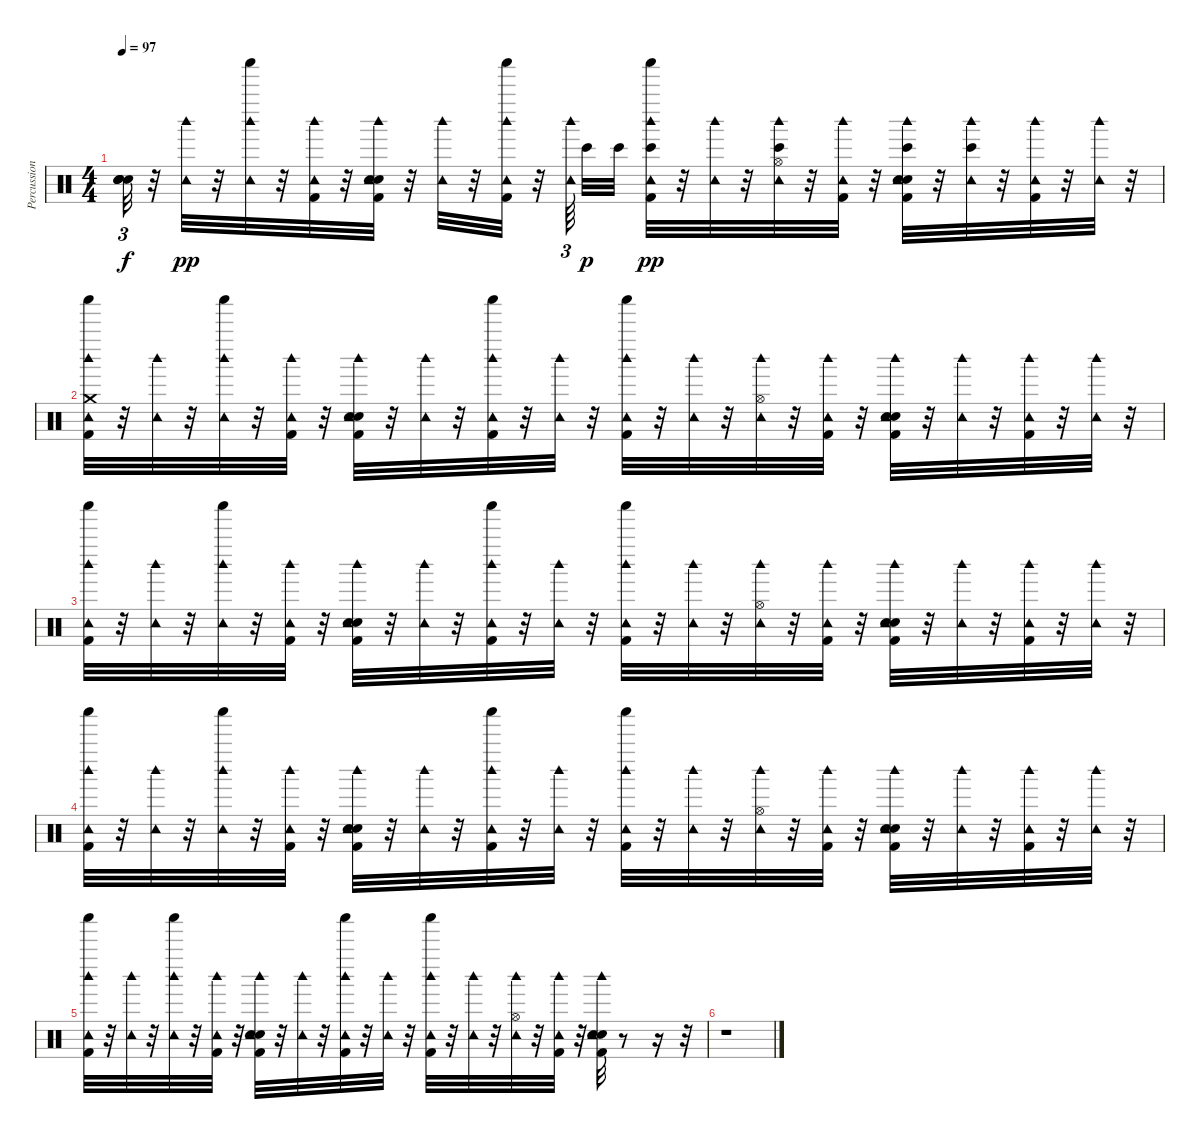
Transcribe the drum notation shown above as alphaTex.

\track ("Percussion" "Percussion") {instrument percussion}
\staff {score}
\articulation defaults
\ts (4 4)
\tempo 97
\clef neutral
\ks c
("Snare (hit)"{t} "Snare (hit)"{t} "Snare (hit)"{t} "Snare (hit)"{t}).32{tu (3 2) dy f} r.32 ("Tambourine (hit)" "Woodblock high (hit)").32{dy pp} r.32 ("Tambourine (hit)" "Shaker (hit)" "Woodblock high (hit)").32 r.32 ("Kick (hit) 2" "Tambourine (hit)" "Woodblock high (hit)").32 r.32 ("Kick (hit) 2" "Snare (hit) 2" "Hand Clap (hit)" "Tambourine (hit)" "Woodblock high (hit)").32 r.32 ("Tambourine (hit)" "Woodblock high (hit)").32 r.32 ("Kick (hit) 2" "Tambourine (hit)" "Shaker (hit)" "Woodblock high (hit)").32 r.32 ("Tambourine (hit)" "Woodblock high (hit)").64{tu (3 2) beam splitsecondary} "Bongo High (hit)".32{dy p} "Bongo High (hit)".32 ("Kick (hit) 2" "Tambourine (hit)" "Bongo High (hit)" "Shaker (hit)" "Woodblock high (hit)").32{dy pp} r.32 ("Tambourine (hit)" "Woodblock high (hit)").32 r.32 ("Hi-Hat (open)" "Tambourine (hit)" "Bongo High (hit)" "Woodblock high (hit)").32 r.32 ("Kick (hit) 2" "Tambourine (hit)" "Woodblock high (hit)").32 r.32 ("Kick (hit) 2" "Snare (hit) 2" "Hand Clap (hit)" "Tambourine (hit)" "Bongo High (hit)" "Woodblock high (hit)").32 r.32 ("Tambourine (hit)" "Bongo High (hit)" "Woodblock high (hit)").32 r.32 ("Kick (hit) 2" "Tambourine (hit)" "Woodblock high (hit)").32 r.32 ("Tambourine (hit)" "Woodblock high (hit)").32 r.32 |
("Kick (hit) 2" "Tambourine (hit)" "Crash medium (hit)" "Shaker (hit)" "Woodblock high (hit)").32 r.32 ("Tambourine (hit)" "Woodblock high (hit)").32 r.32 ("Tambourine (hit)" "Shaker (hit)" "Woodblock high (hit)").32 r.32 ("Kick (hit) 2" "Tambourine (hit)" "Woodblock high (hit)").32 r.32 ("Kick (hit) 2" "Snare (hit) 2" "Hand Clap (hit)" "Tambourine (hit)" "Woodblock high (hit)").32 r.32 ("Tambourine (hit)" "Woodblock high (hit)").32 r.32 ("Kick (hit) 2" "Tambourine (hit)" "Shaker (hit)" "Woodblock high (hit)").32 r.32 ("Tambourine (hit)" "Woodblock high (hit)").32 r.32 ("Kick (hit) 2" "Tambourine (hit)" "Shaker (hit)" "Woodblock high (hit)").32 r.32 ("Tambourine (hit)" "Woodblock high (hit)").32 r.32 ("Hi-Hat (open)" "Tambourine (hit)" "Woodblock high (hit)").32 r.32 ("Kick (hit) 2" "Tambourine (hit)" "Woodblock high (hit)").32 r.32 ("Kick (hit) 2" "Snare (hit) 2" "Hand Clap (hit)" "Tambourine (hit)" "Woodblock high (hit)").32 r.32 ("Tambourine (hit)" "Woodblock high (hit)").32 r.32 ("Kick (hit) 2" "Tambourine (hit)" "Woodblock high (hit)").32 r.32 ("Tambourine (hit)" "Woodblock high (hit)").32 r.32 |
("Kick (hit) 2" "Tambourine (hit)" "Shaker (hit)" "Woodblock high (hit)").32 r.32 ("Tambourine (hit)" "Woodblock high (hit)").32 r.32 ("Tambourine (hit)" "Shaker (hit)" "Woodblock high (hit)").32 r.32 ("Kick (hit) 2" "Tambourine (hit)" "Woodblock high (hit)").32 r.32 ("Kick (hit) 2" "Snare (hit) 2" "Hand Clap (hit)" "Tambourine (hit)" "Woodblock high (hit)").32 r.32 ("Tambourine (hit)" "Woodblock high (hit)").32 r.32 ("Kick (hit) 2" "Tambourine (hit)" "Shaker (hit)" "Woodblock high (hit)").32 r.32 ("Tambourine (hit)" "Woodblock high (hit)").32 r.32 ("Kick (hit) 2" "Tambourine (hit)" "Shaker (hit)" "Woodblock high (hit)").32 r.32 ("Tambourine (hit)" "Woodblock high (hit)").32 r.32 ("Hi-Hat (open)" "Tambourine (hit)" "Woodblock high (hit)").32 r.32 ("Kick (hit) 2" "Tambourine (hit)" "Woodblock high (hit)").32 r.32 ("Kick (hit) 2" "Snare (hit) 2" "Hand Clap (hit)" "Tambourine (hit)" "Woodblock high (hit)").32 r.32 ("Tambourine (hit)" "Woodblock high (hit)").32 r.32 ("Kick (hit) 2" "Tambourine (hit)" "Woodblock high (hit)").32 r.32 ("Tambourine (hit)" "Woodblock high (hit)").32 r.32 |
("Kick (hit) 2" "Tambourine (hit)" "Shaker (hit)" "Woodblock high (hit)").32 r.32 ("Tambourine (hit)" "Woodblock high (hit)").32 r.32 ("Tambourine (hit)" "Shaker (hit)" "Woodblock high (hit)").32 r.32 ("Kick (hit) 2" "Tambourine (hit)" "Woodblock high (hit)").32 r.32 ("Kick (hit) 2" "Snare (hit) 2" "Hand Clap (hit)" "Tambourine (hit)" "Woodblock high (hit)").32 r.32 ("Tambourine (hit)" "Woodblock high (hit)").32 r.32 ("Kick (hit) 2" "Tambourine (hit)" "Shaker (hit)" "Woodblock high (hit)").32 r.32 ("Tambourine (hit)" "Woodblock high (hit)").32 r.32 ("Kick (hit) 2" "Tambourine (hit)" "Shaker (hit)" "Woodblock high (hit)").32 r.32 ("Tambourine (hit)" "Woodblock high (hit)").32 r.32 ("Hi-Hat (open)" "Tambourine (hit)" "Woodblock high (hit)").32 r.32 ("Kick (hit) 2" "Tambourine (hit)" "Woodblock high (hit)").32 r.32 ("Kick (hit) 2" "Snare (hit) 2" "Hand Clap (hit)" "Tambourine (hit)" "Woodblock high (hit)").32 r.32 ("Tambourine (hit)" "Woodblock high (hit)").32 r.32 ("Kick (hit) 2" "Tambourine (hit)" "Woodblock high (hit)").32 r.32 ("Tambourine (hit)" "Woodblock high (hit)").32 r.32 |
("Kick (hit) 2" "Tambourine (hit)" "Shaker (hit)" "Woodblock high (hit)").32 r.32 ("Tambourine (hit)" "Woodblock high (hit)").32 r.32 ("Tambourine (hit)" "Shaker (hit)" "Woodblock high (hit)").32 r.32 ("Kick (hit) 2" "Tambourine (hit)" "Woodblock high (hit)").32 r.32 ("Kick (hit) 2" "Snare (hit) 2" "Hand Clap (hit)" "Tambourine (hit)" "Woodblock high (hit)").32 r.32 ("Tambourine (hit)" "Woodblock high (hit)").32 r.32 ("Kick (hit) 2" "Tambourine (hit)" "Shaker (hit)" "Woodblock high (hit)").32 r.32 ("Tambourine (hit)" "Woodblock high (hit)").32 r.32 ("Kick (hit) 2" "Tambourine (hit)" "Shaker (hit)" "Woodblock high (hit)").32 r.32 ("Tambourine (hit)" "Woodblock high (hit)").32 r.32 ("Hi-Hat (open)" "Tambourine (hit)" "Woodblock high (hit)").32 r.32 ("Kick (hit) 2" "Tambourine (hit)" "Woodblock high (hit)").32 r.32 ("Kick (hit) 2" "Snare (hit) 2" "Hand Clap (hit)" "Tambourine (hit)" "Woodblock high (hit)").32 r.8 r.16 r.32 |
r.1
